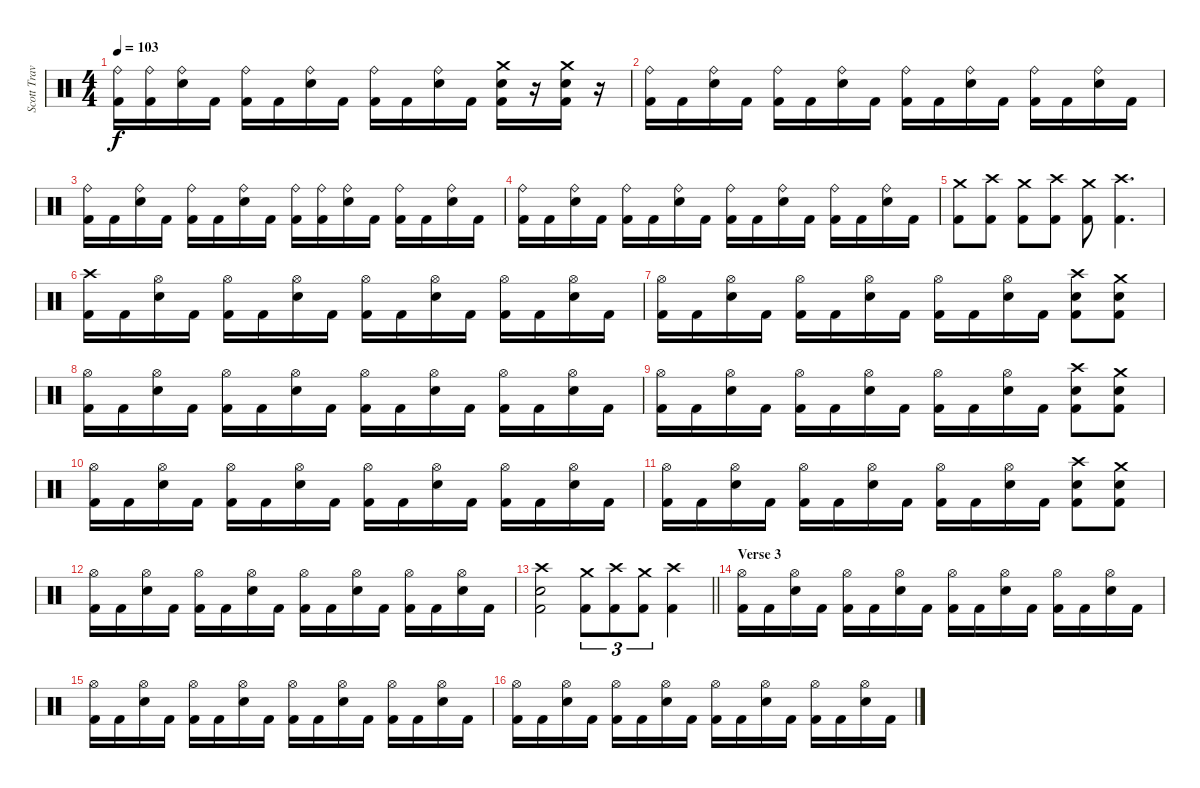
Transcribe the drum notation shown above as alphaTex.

\track ("Scott Travis" "Scott Trav") {instrument percussion}
\staff {score}
\articulation defaults
\ts (4 4)
\tempo 103
\clef neutral
\ks c
("Ride (bell)" "Kick (hit) 2").16{dy f} ("Ride (bell)" "Kick (hit) 2").16 ("Ride (bell)" "Snare (hit) 2").16 "Kick (hit) 2".16 ("Ride (bell)" "Kick (hit) 2").16 "Kick (hit) 2".16 ("Ride (bell)" "Snare (hit) 2").16 "Kick (hit) 2".16 ("Ride (bell)" "Kick (hit) 2").16 "Kick (hit) 2".16 ("Ride (bell)" "Snare (hit) 2").16 "Kick (hit) 2".16 ("Crash medium (hit)" "Snare (hit) 2" "Kick (hit) 2").16 r.16 ("Crash medium (hit)" "Snare (hit) 2" "Kick (hit) 2").16 r.16 |
("Ride (bell)" "Kick (hit) 2").16 "Kick (hit) 2".16 ("Ride (bell)" "Snare (hit) 2").16 "Kick (hit) 2".16 ("Ride (bell)" "Kick (hit) 2").16 "Kick (hit) 2".16 ("Ride (bell)" "Snare (hit) 2").16 "Kick (hit) 2".16 ("Ride (bell)" "Kick (hit) 2").16 "Kick (hit) 2".16 ("Ride (bell)" "Snare (hit) 2").16 "Kick (hit) 2".16 ("Ride (bell)" "Kick (hit) 2").16 "Kick (hit) 2".16 ("Ride (bell)" "Snare (hit) 2").16 "Kick (hit) 2".16 |
("Ride (bell)" "Kick (hit) 2").16 "Kick (hit) 2".16 ("Ride (bell)" "Snare (hit) 2").16 "Kick (hit) 2".16 ("Ride (bell)" "Kick (hit) 2").16 "Kick (hit) 2".16 ("Ride (bell)" "Snare (hit) 2").16 "Kick (hit) 2".16 ("Ride (bell)" "Kick (hit) 2").16 ("Ride (bell)" "Kick (hit) 2").16 ("Ride (bell)" "Snare (hit) 2").16 "Kick (hit) 2".16 ("Ride (bell)" "Kick (hit) 2").16 "Kick (hit) 2".16 ("Ride (bell)" "Snare (hit) 2").16 "Kick (hit) 2".16 |
("Ride (bell)" "Kick (hit) 2").16 "Kick (hit) 2".16 ("Ride (bell)" "Snare (hit) 2").16 "Kick (hit) 2".16 ("Ride (bell)" "Kick (hit) 2").16 "Kick (hit) 2".16 ("Ride (bell)" "Snare (hit) 2").16 "Kick (hit) 2".16 ("Ride (bell)" "Kick (hit) 2").16 "Kick (hit) 2".16 ("Ride (bell)" "Snare (hit) 2").16 "Kick (hit) 2".16 ("Ride (bell)" "Kick (hit) 2").16 "Kick (hit) 2".16 ("Ride (bell)" "Snare (hit) 2").16 "Kick (hit) 2".16 |
("Crash medium (hit)" "Kick (hit) 2").8 ("Crash high (hit)" "Kick (hit) 2").8 ("Crash medium (hit)" "Kick (hit) 2").8 ("Crash high (hit)" "Kick (hit) 2").8 ("Crash medium (hit)" "Kick (hit) 2").8 ("Crash high (hit)" "Kick (hit) 2").4{d} |
("Crash high (hit)" "Kick (hit) 2").16 "Kick (hit) 2".16 ("Hi-Hat (open)" "Snare (hit) 2").16 "Kick (hit) 2".16 ("Hi-Hat (open)" "Kick (hit) 2").16 "Kick (hit) 2".16 ("Hi-Hat (open)" "Snare (hit) 2").16 "Kick (hit) 2".16 ("Hi-Hat (open)" "Kick (hit) 2").16 "Kick (hit) 2".16 ("Hi-Hat (open)" "Snare (hit) 2").16 "Kick (hit) 2".16 ("Hi-Hat (open)" "Kick (hit) 2").16 "Kick (hit) 2".16 ("Hi-Hat (open)" "Snare (hit) 2").16 "Kick (hit) 2".16 |
("Hi-Hat (open)" "Kick (hit) 2").16 "Kick (hit) 2".16 ("Hi-Hat (open)" "Snare (hit) 2").16 "Kick (hit) 2".16 ("Hi-Hat (open)" "Kick (hit) 2").16 "Kick (hit) 2".16 ("Hi-Hat (open)" "Snare (hit) 2").16 "Kick (hit) 2".16 ("Hi-Hat (open)" "Kick (hit) 2").16 "Kick (hit) 2".16 ("Hi-Hat (open)" "Snare (hit) 2").16 "Kick (hit) 2".16 ("Crash high (hit)" "Snare (hit) 2" "Kick (hit) 2").8 ("Crash medium (hit)" "Snare (hit) 2" "Kick (hit) 2").8 |
("Hi-Hat (open)" "Kick (hit) 2").16 "Kick (hit) 2".16 ("Hi-Hat (open)" "Snare (hit) 2").16 "Kick (hit) 2".16 ("Hi-Hat (open)" "Kick (hit) 2").16 "Kick (hit) 2".16 ("Hi-Hat (open)" "Snare (hit) 2").16 "Kick (hit) 2".16 ("Hi-Hat (open)" "Kick (hit) 2").16 "Kick (hit) 2".16 ("Hi-Hat (open)" "Snare (hit) 2").16 "Kick (hit) 2".16 ("Hi-Hat (open)" "Kick (hit) 2").16 "Kick (hit) 2".16 ("Hi-Hat (open)" "Snare (hit) 2").16 "Kick (hit) 2".16 |
("Hi-Hat (open)" "Kick (hit) 2").16 "Kick (hit) 2".16 ("Hi-Hat (open)" "Snare (hit) 2").16 "Kick (hit) 2".16 ("Hi-Hat (open)" "Kick (hit) 2").16 "Kick (hit) 2".16 ("Hi-Hat (open)" "Snare (hit) 2").16 "Kick (hit) 2".16 ("Hi-Hat (open)" "Kick (hit) 2").16 "Kick (hit) 2".16 ("Hi-Hat (open)" "Snare (hit) 2").16 "Kick (hit) 2".16 ("Crash high (hit)" "Snare (hit) 2" "Kick (hit) 2").8 ("Crash medium (hit)" "Snare (hit) 2" "Kick (hit) 2").8 |
("Hi-Hat (open)" "Kick (hit) 2").16 "Kick (hit) 2".16 ("Hi-Hat (open)" "Snare (hit) 2").16 "Kick (hit) 2".16 ("Hi-Hat (open)" "Kick (hit) 2").16 "Kick (hit) 2".16 ("Hi-Hat (open)" "Snare (hit) 2").16 "Kick (hit) 2".16 ("Hi-Hat (open)" "Kick (hit) 2").16 "Kick (hit) 2".16 ("Hi-Hat (open)" "Snare (hit) 2").16 "Kick (hit) 2".16 ("Hi-Hat (open)" "Kick (hit) 2").16 "Kick (hit) 2".16 ("Hi-Hat (open)" "Snare (hit) 2").16 "Kick (hit) 2".16 |
("Hi-Hat (open)" "Kick (hit) 2").16 "Kick (hit) 2".16 ("Hi-Hat (open)" "Snare (hit) 2").16 "Kick (hit) 2".16 ("Hi-Hat (open)" "Kick (hit) 2").16 "Kick (hit) 2".16 ("Hi-Hat (open)" "Snare (hit) 2").16 "Kick (hit) 2".16 ("Hi-Hat (open)" "Kick (hit) 2").16 "Kick (hit) 2".16 ("Hi-Hat (open)" "Snare (hit) 2").16 "Kick (hit) 2".16 ("Crash high (hit)" "Snare (hit) 2" "Kick (hit) 2").8 ("Crash medium (hit)" "Snare (hit) 2" "Kick (hit) 2").8 |
("Hi-Hat (open)" "Kick (hit) 2").16 "Kick (hit) 2".16 ("Hi-Hat (open)" "Snare (hit) 2").16 "Kick (hit) 2".16 ("Hi-Hat (open)" "Kick (hit) 2").16 "Kick (hit) 2".16 ("Hi-Hat (open)" "Snare (hit) 2").16 "Kick (hit) 2".16 ("Hi-Hat (open)" "Kick (hit) 2").16 "Kick (hit) 2".16 ("Hi-Hat (open)" "Snare (hit) 2").16 "Kick (hit) 2".16 ("Hi-Hat (open)" "Kick (hit) 2").16 "Kick (hit) 2".16 ("Hi-Hat (open)" "Snare (hit) 2").16 "Kick (hit) 2".16 |
\barLineRight lightlight
("Crash high (hit)" "Snare (hit) 2" "Kick (hit) 2").2 ("Crash medium (hit)" "Kick (hit) 2").8{tu (3 2)} ("Crash high (hit)" "Kick (hit) 2").8{tu (3 2)} ("Crash medium (hit)" "Kick (hit) 2").8{tu (3 2)} ("Crash high (hit)" "Kick (hit) 2").4 |
\section ("" "Verse 3")
("Hi-Hat (open)" "Kick (hit) 2").16 "Kick (hit) 2".16 ("Hi-Hat (open)" "Snare (hit) 2").16 "Kick (hit) 2".16 ("Hi-Hat (open)" "Kick (hit) 2").16 "Kick (hit) 2".16 ("Hi-Hat (open)" "Snare (hit) 2").16 "Kick (hit) 2".16 ("Hi-Hat (open)" "Kick (hit) 2").16 "Kick (hit) 2".16 ("Hi-Hat (open)" "Snare (hit) 2").16 "Kick (hit) 2".16 ("Hi-Hat (open)" "Kick (hit) 2").16 "Kick (hit) 2".16 ("Hi-Hat (open)" "Snare (hit) 2").16 "Kick (hit) 2".16 |
("Hi-Hat (open)" "Kick (hit) 2").16 "Kick (hit) 2".16 ("Hi-Hat (open)" "Snare (hit) 2").16 "Kick (hit) 2".16 ("Hi-Hat (open)" "Kick (hit) 2").16 "Kick (hit) 2".16 ("Hi-Hat (open)" "Snare (hit) 2").16 "Kick (hit) 2".16 ("Hi-Hat (open)" "Kick (hit) 2").16 "Kick (hit) 2".16 ("Hi-Hat (open)" "Snare (hit) 2").16 "Kick (hit) 2".16 ("Hi-Hat (open)" "Kick (hit) 2").16 "Kick (hit) 2".16 ("Hi-Hat (open)" "Snare (hit) 2").16 "Kick (hit) 2".16 |
("Hi-Hat (open)" "Kick (hit) 2").16 "Kick (hit) 2".16 ("Hi-Hat (open)" "Snare (hit) 2").16 "Kick (hit) 2".16 ("Hi-Hat (open)" "Kick (hit) 2").16 "Kick (hit) 2".16 ("Hi-Hat (open)" "Snare (hit) 2").16 "Kick (hit) 2".16 ("Hi-Hat (open)" "Kick (hit) 2").16 "Kick (hit) 2".16 ("Hi-Hat (open)" "Snare (hit) 2").16 "Kick (hit) 2".16 ("Hi-Hat (open)" "Kick (hit) 2").16 "Kick (hit) 2".16 ("Hi-Hat (open)" "Snare (hit) 2").16 "Kick (hit) 2".16
